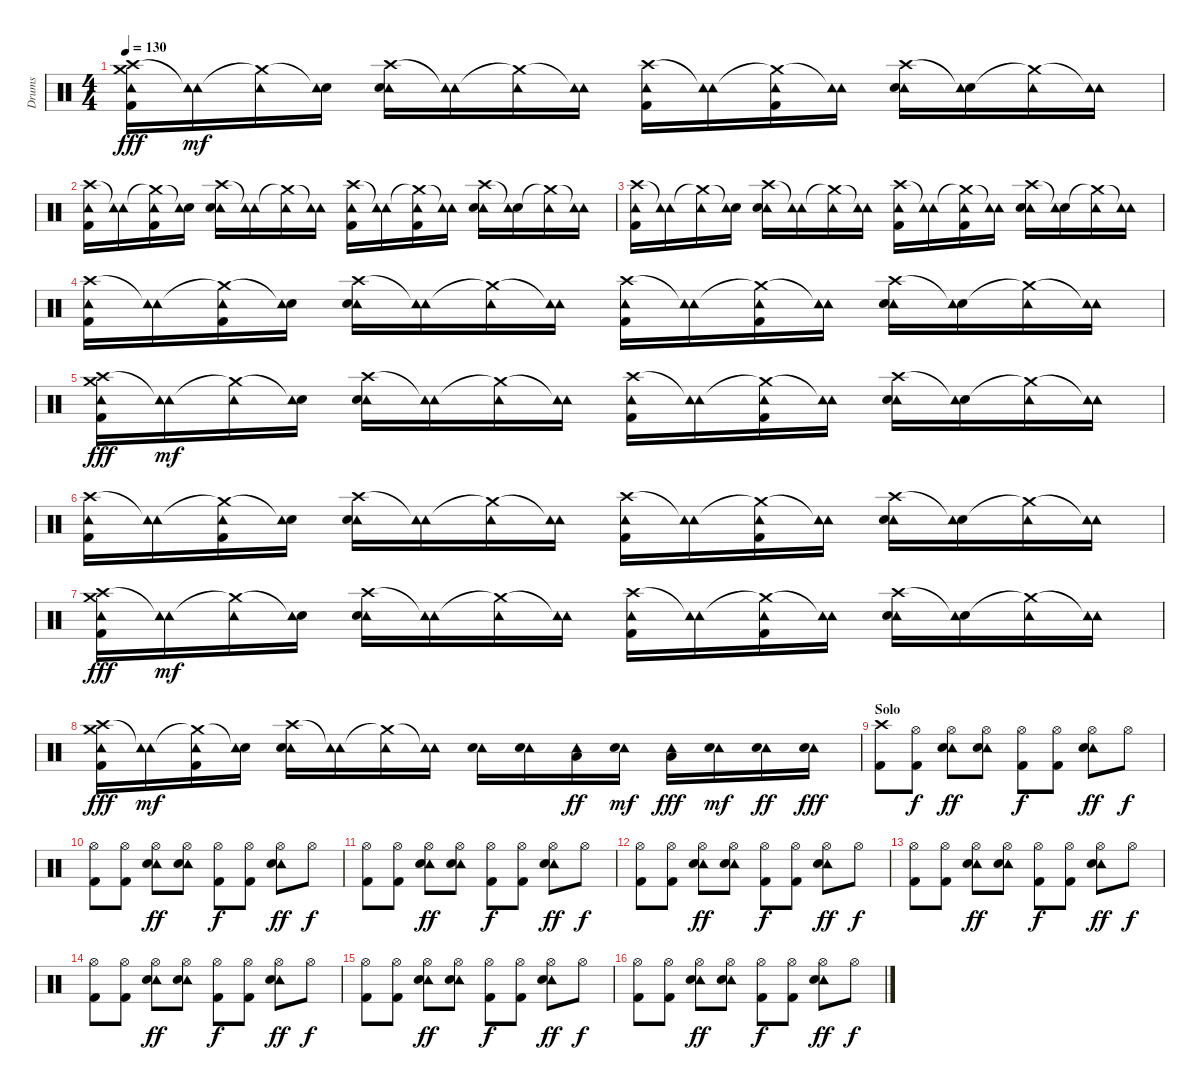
\track ("Drums" "Drums") {instrument percussion}
\staff {score}
\articulation defaults
\ts (4 4)
\tempo 130
\clef neutral
\ks c
("Crash high (hit)" "Tambourine (hit)" "Crash medium (hit)" "Kick (hit) 2").16{dy fff} ("Tambourine (hit)"{t} "Tambourine (hit)").16{dy mf} ("Crash medium (hit)"{t} "Tambourine (hit)").16 ("Snare (hit)"{t} "Tambourine (hit)").16 ("Crash high (hit)" "Tambourine (hit)" "Snare (hit) 2").16 ("Tambourine (hit)"{t} "Tambourine (hit)").16 ("Crash medium (hit)"{t} "Tambourine (hit)").16 ("Tambourine (hit)"{t} "Tambourine (hit)").16 ("Crash high (hit)" "Tambourine (hit)" "Kick (hit) 2").16 ("Tambourine (hit)"{t} "Tambourine (hit)").16 ("Crash medium (hit)"{t} "Tambourine (hit)" "Kick (hit) 2").16 ("Tambourine (hit)"{t} "Tambourine (hit)").16 ("Crash high (hit)" "Tambourine (hit)" "Snare (hit) 2").16 ("Snare (hit)"{t} "Tambourine (hit)").16 ("Crash medium (hit)"{t} "Tambourine (hit)").16 ("Tambourine (hit)"{t} "Tambourine (hit)").16 |
("Crash high (hit)" "Tambourine (hit)" "Kick (hit) 2").16 ("Tambourine (hit)"{t} "Tambourine (hit)").16 ("Crash medium (hit)"{t} "Tambourine (hit)" "Kick (hit) 2").16 ("Snare (hit)"{t} "Tambourine (hit)").16 ("Crash high (hit)" "Tambourine (hit)" "Snare (hit) 2").16 ("Tambourine (hit)"{t} "Tambourine (hit)").16 ("Crash medium (hit)"{t} "Tambourine (hit)").16 ("Tambourine (hit)"{t} "Tambourine (hit)").16 ("Crash high (hit)" "Tambourine (hit)" "Kick (hit) 2").16 ("Tambourine (hit)"{t} "Tambourine (hit)").16 ("Crash medium (hit)"{t} "Tambourine (hit)" "Kick (hit) 2").16 ("Tambourine (hit)"{t} "Tambourine (hit)").16 ("Crash high (hit)" "Tambourine (hit)" "Snare (hit) 2").16 ("Snare (hit)"{t} "Tambourine (hit)").16 ("Crash medium (hit)"{t} "Tambourine (hit)").16 ("Tambourine (hit)"{t} "Tambourine (hit)").16 |
("Crash high (hit)" "Tambourine (hit)" "Kick (hit) 2").16 ("Tambourine (hit)"{t} "Tambourine (hit)").16 ("Crash medium (hit)"{t} "Tambourine (hit)").16 ("Snare (hit)"{t} "Tambourine (hit)").16 ("Crash high (hit)" "Tambourine (hit)" "Snare (hit) 2").16 ("Tambourine (hit)"{t} "Tambourine (hit)").16 ("Crash medium (hit)"{t} "Tambourine (hit)").16 ("Tambourine (hit)"{t} "Tambourine (hit)").16 ("Crash high (hit)" "Tambourine (hit)" "Kick (hit) 2").16 ("Tambourine (hit)"{t} "Tambourine (hit)").16 ("Crash medium (hit)"{t} "Tambourine (hit)" "Kick (hit) 2").16 ("Tambourine (hit)"{t} "Tambourine (hit)").16 ("Crash high (hit)" "Tambourine (hit)" "Snare (hit) 2").16 ("Snare (hit)"{t} "Tambourine (hit)").16 ("Crash medium (hit)"{t} "Tambourine (hit)").16 ("Tambourine (hit)"{t} "Tambourine (hit)").16 |
("Crash high (hit)" "Tambourine (hit)" "Kick (hit) 2").16 ("Tambourine (hit)"{t} "Tambourine (hit)").16 ("Crash medium (hit)"{t} "Tambourine (hit)" "Kick (hit) 2").16 ("Snare (hit)"{t} "Tambourine (hit)").16 ("Crash high (hit)" "Tambourine (hit)" "Snare (hit) 2").16 ("Tambourine (hit)"{t} "Tambourine (hit)").16 ("Crash medium (hit)"{t} "Tambourine (hit)").16 ("Tambourine (hit)"{t} "Tambourine (hit)").16 ("Crash high (hit)" "Tambourine (hit)" "Kick (hit) 2").16 ("Tambourine (hit)"{t} "Tambourine (hit)").16 ("Crash medium (hit)"{t} "Tambourine (hit)" "Kick (hit) 2").16 ("Tambourine (hit)"{t} "Tambourine (hit)").16 ("Crash high (hit)" "Tambourine (hit)" "Snare (hit) 2").16 ("Snare (hit)"{t} "Tambourine (hit)").16 ("Crash medium (hit)"{t} "Tambourine (hit)").16 ("Tambourine (hit)"{t} "Tambourine (hit)").16 |
("Crash high (hit)" "Tambourine (hit)" "Crash medium (hit)" "Kick (hit) 2").16{dy fff} ("Tambourine (hit)"{t} "Tambourine (hit)").16{dy mf} ("Crash medium (hit)"{t} "Tambourine (hit)").16 ("Snare (hit)"{t} "Tambourine (hit)").16 ("Crash high (hit)" "Tambourine (hit)" "Snare (hit) 2").16 ("Tambourine (hit)"{t} "Tambourine (hit)").16 ("Crash medium (hit)"{t} "Tambourine (hit)").16 ("Tambourine (hit)"{t} "Tambourine (hit)").16 ("Crash high (hit)" "Tambourine (hit)" "Kick (hit) 2").16 ("Tambourine (hit)"{t} "Tambourine (hit)").16 ("Crash medium (hit)"{t} "Tambourine (hit)" "Kick (hit) 2").16 ("Tambourine (hit)"{t} "Tambourine (hit)").16 ("Crash high (hit)" "Tambourine (hit)" "Snare (hit) 2").16 ("Snare (hit)"{t} "Tambourine (hit)").16 ("Crash medium (hit)"{t} "Tambourine (hit)").16 ("Tambourine (hit)"{t} "Tambourine (hit)").16 |
("Crash high (hit)" "Tambourine (hit)" "Kick (hit) 2").16 ("Tambourine (hit)"{t} "Tambourine (hit)").16 ("Crash medium (hit)"{t} "Tambourine (hit)" "Kick (hit) 2").16 ("Snare (hit)"{t} "Tambourine (hit)").16 ("Crash high (hit)" "Tambourine (hit)" "Snare (hit) 2").16 ("Tambourine (hit)"{t} "Tambourine (hit)").16 ("Crash medium (hit)"{t} "Tambourine (hit)").16 ("Tambourine (hit)"{t} "Tambourine (hit)").16 ("Crash high (hit)" "Tambourine (hit)" "Kick (hit) 2").16 ("Tambourine (hit)"{t} "Tambourine (hit)").16 ("Crash medium (hit)"{t} "Tambourine (hit)" "Kick (hit) 2").16 ("Tambourine (hit)"{t} "Tambourine (hit)").16 ("Crash high (hit)" "Tambourine (hit)" "Snare (hit) 2").16 ("Snare (hit)"{t} "Tambourine (hit)").16 ("Crash medium (hit)"{t} "Tambourine (hit)").16 ("Tambourine (hit)"{t} "Tambourine (hit)").16 |
("Crash high (hit)" "Tambourine (hit)" "Crash medium (hit)" "Kick (hit) 2").16{dy fff} ("Tambourine (hit)"{t} "Tambourine (hit)").16{dy mf} ("Crash medium (hit)"{t} "Tambourine (hit)").16 ("Snare (hit)"{t} "Tambourine (hit)").16 ("Crash high (hit)" "Tambourine (hit)" "Snare (hit) 2").16 ("Tambourine (hit)"{t} "Tambourine (hit)").16 ("Crash medium (hit)"{t} "Tambourine (hit)").16 ("Tambourine (hit)"{t} "Tambourine (hit)").16 ("Crash high (hit)" "Tambourine (hit)" "Kick (hit) 2").16 ("Tambourine (hit)"{t} "Tambourine (hit)").16 ("Crash medium (hit)"{t} "Tambourine (hit)" "Kick (hit) 2").16 ("Tambourine (hit)"{t} "Tambourine (hit)").16 ("Crash high (hit)" "Tambourine (hit)" "Snare (hit) 2").16 ("Snare (hit)"{t} "Tambourine (hit)").16 ("Crash medium (hit)"{t} "Tambourine (hit)").16 ("Tambourine (hit)"{t} "Tambourine (hit)").16 |
("Crash high (hit)" "Tambourine (hit)" "Crash medium (hit)" "Kick (hit) 2").16{dy fff} ("Tambourine (hit)"{t} "Tambourine (hit)").16{dy mf} ("Crash medium (hit)"{t} "Tambourine (hit)" "Kick (hit) 2").16 ("Snare (hit)"{t} "Tambourine (hit)").16 ("Crash high (hit)" "Tambourine (hit)" "Snare (hit) 2").16 ("Tambourine (hit)"{t} "Tambourine (hit)").16 ("Crash medium (hit)"{t} "Tambourine (hit)").16 ("Tambourine (hit)"{t} "Tambourine (hit)").16 ("Tambourine (hit)" "Snare (hit) 2").16 ("Tambourine (hit)" "Snare (hit) 2").16 ("Tambourine (hit)" "Low Tom (hit)").16{dy ff} ("Tambourine (hit)" "Snare (hit) 2").16{dy mf} ("Tambourine (hit)" "Low Tom (hit)").16{dy fff} ("Tambourine (hit)" "Snare (hit) 2").16{dy mf} ("Tambourine (hit)" "Snare (hit) 2").16{dy ff} ("Tambourine (hit)" "Snare (hit) 2").16{dy fff} |
\section ("" "Solo ")
("Crash high (hit)" "Kick (hit) 2").8 ("Hi-Hat (open)" "Kick (hit) 2").8{dy f} ("Hi-Hat (open)" "Tambourine (hit)" "Snare (hit) 2").8{dy ff} ("Hi-Hat (open)" "Tambourine (hit)" "Snare (hit) 2").8 ("Hi-Hat (open)" "Kick (hit) 2").8{dy f} ("Hi-Hat (open)" "Kick (hit) 2").8 ("Hi-Hat (open)" "Tambourine (hit)" "Snare (hit) 2").8{dy ff} "Hi-Hat (open)".8{dy f} |
("Hi-Hat (open)" "Kick (hit) 2").8 ("Hi-Hat (open)" "Kick (hit) 2").8 ("Hi-Hat (open)" "Tambourine (hit)" "Snare (hit) 2").8{dy ff} ("Hi-Hat (open)" "Tambourine (hit)" "Snare (hit) 2").8 ("Hi-Hat (open)" "Kick (hit) 2").8{dy f} ("Hi-Hat (open)" "Kick (hit) 2").8 ("Hi-Hat (open)" "Tambourine (hit)" "Snare (hit) 2").8{dy ff} "Hi-Hat (open)".8{dy f} |
("Hi-Hat (open)" "Kick (hit) 2").8 ("Hi-Hat (open)" "Kick (hit) 2").8 ("Hi-Hat (open)" "Tambourine (hit)" "Snare (hit) 2").8{dy ff} ("Hi-Hat (open)" "Tambourine (hit)" "Snare (hit) 2").8 ("Hi-Hat (open)" "Kick (hit) 2").8{dy f} ("Hi-Hat (open)" "Kick (hit) 2").8 ("Hi-Hat (open)" "Tambourine (hit)" "Snare (hit) 2").8{dy ff} "Hi-Hat (open)".8{dy f} |
("Hi-Hat (open)" "Kick (hit) 2").8 ("Hi-Hat (open)" "Kick (hit) 2").8 ("Hi-Hat (open)" "Tambourine (hit)" "Snare (hit) 2").8{dy ff} ("Hi-Hat (open)" "Tambourine (hit)" "Snare (hit) 2").8 ("Hi-Hat (open)" "Kick (hit) 2").8{dy f} ("Hi-Hat (open)" "Kick (hit) 2").8 ("Hi-Hat (open)" "Tambourine (hit)" "Snare (hit) 2").8{dy ff} "Hi-Hat (open)".8{dy f} |
("Hi-Hat (open)" "Kick (hit) 2").8 ("Hi-Hat (open)" "Kick (hit) 2").8 ("Hi-Hat (open)" "Tambourine (hit)" "Snare (hit) 2").8{dy ff} ("Hi-Hat (open)" "Tambourine (hit)" "Snare (hit) 2").8 ("Hi-Hat (open)" "Kick (hit) 2").8{dy f} ("Hi-Hat (open)" "Kick (hit) 2").8 ("Hi-Hat (open)" "Tambourine (hit)" "Snare (hit) 2").8{dy ff} "Hi-Hat (open)".8{dy f} |
("Hi-Hat (open)" "Kick (hit) 2").8 ("Hi-Hat (open)" "Kick (hit) 2").8 ("Hi-Hat (open)" "Tambourine (hit)" "Snare (hit) 2").8{dy ff} ("Hi-Hat (open)" "Tambourine (hit)" "Snare (hit) 2").8 ("Hi-Hat (open)" "Kick (hit) 2").8{dy f} ("Hi-Hat (open)" "Kick (hit) 2").8 ("Hi-Hat (open)" "Tambourine (hit)" "Snare (hit) 2").8{dy ff} "Hi-Hat (open)".8{dy f} |
("Hi-Hat (open)" "Kick (hit) 2").8 ("Hi-Hat (open)" "Kick (hit) 2").8 ("Hi-Hat (open)" "Tambourine (hit)" "Snare (hit) 2").8{dy ff} ("Hi-Hat (open)" "Tambourine (hit)" "Snare (hit) 2").8 ("Hi-Hat (open)" "Kick (hit) 2").8{dy f} ("Hi-Hat (open)" "Kick (hit) 2").8 ("Hi-Hat (open)" "Tambourine (hit)" "Snare (hit) 2").8{dy ff} "Hi-Hat (open)".8{dy f} |
("Hi-Hat (open)" "Kick (hit) 2").8 ("Hi-Hat (open)" "Kick (hit) 2").8 ("Hi-Hat (open)" "Tambourine (hit)" "Snare (hit) 2").8{dy ff} ("Hi-Hat (open)" "Tambourine (hit)" "Snare (hit) 2").8 ("Hi-Hat (open)" "Kick (hit) 2").8{dy f} ("Hi-Hat (open)" "Kick (hit) 2").8 ("Hi-Hat (open)" "Tambourine (hit)" "Snare (hit) 2").8{dy ff} "Hi-Hat (open)".8{dy f}
